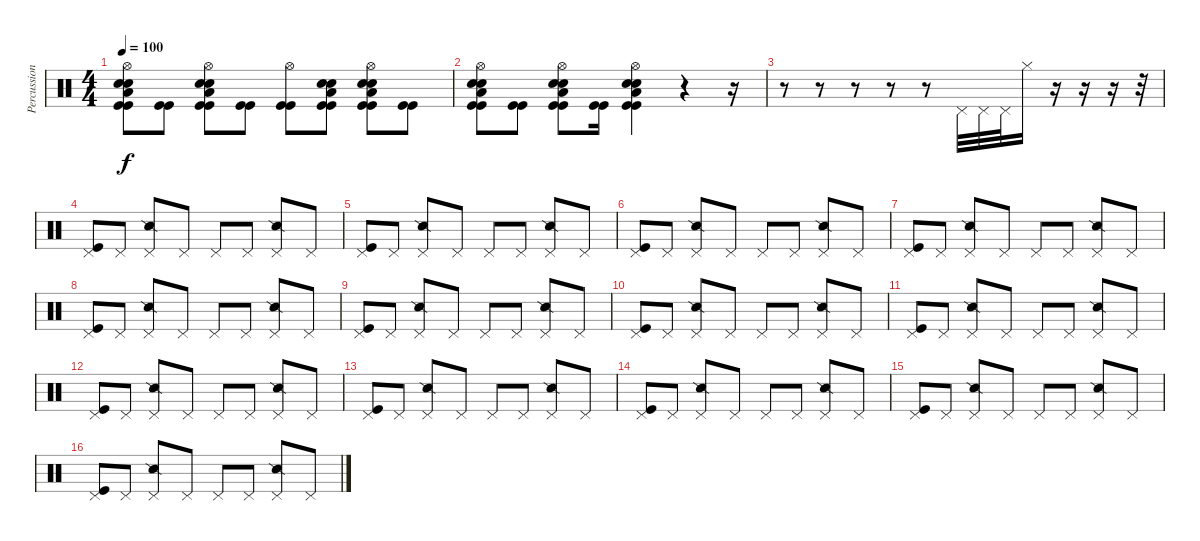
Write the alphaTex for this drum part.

\track ("Percussion" "Percussion") {instrument percussion}
\staff {score}
\articulation defaults
\ts (4 4)
\tempo 100
\clef neutral
\ks c
("Hi-Hat (open)" "Kick (hit)" "Kick (hit)" "Electric Snare (hit)" "Electric Snare (hit)" "Low Tom (hit)").8{dy f} ("Kick (hit)" "Kick (hit)").8 ("Hi-Hat (open)" "Kick (hit)" "Kick (hit)" "Electric Snare (hit)" "Electric Snare (hit)" "Low Tom (hit)").8 ("Kick (hit)" "Kick (hit)").8 ("Hi-Hat (open)" "Kick (hit)" "Kick (hit)").8 ("Kick (hit)" "Kick (hit)" "Electric Snare (hit)" "Electric Snare (hit)" "Low Tom (hit)").8 ("Hi-Hat (open)" "Kick (hit)" "Kick (hit)" "Electric Snare (hit)" "Electric Snare (hit)" "Low Tom (hit)").8 ("Kick (hit)" "Kick (hit)").8 |
("Hi-Hat (open)" "Kick (hit)" "Kick (hit)" "Electric Snare (hit)" "Electric Snare (hit)" "Low Tom (hit)").8 ("Kick (hit)" "Kick (hit)").8 ("Hi-Hat (open)" "Kick (hit)" "Kick (hit)" "Electric Snare (hit)" "Electric Snare (hit)" "Low Tom (hit)").8 ("Kick (hit)" "Kick (hit)").16 ("Hi-Hat (open)" "Kick (hit)" "Kick (hit)" "Electric Snare (hit)" "Electric Snare (hit)" "Low Tom (hit)").4 r.4 r.16 |
r.8 r.8 r.8 r.8 r.8 "Pedal Hi-Hat (hit)".32 "Pedal Hi-Hat (hit)".32 "Pedal Hi-Hat (hit)".32 "Hi-Hat (closed)".16 r.16 r.16 r.16 r.32 |
("Pedal Hi-Hat (hit)" "Kick (hit)").8 "Pedal Hi-Hat (hit)".8 ("Pedal Hi-Hat (hit)" "Snare (side stick) 2").8 "Pedal Hi-Hat (hit)".8 "Pedal Hi-Hat (hit)".8 "Pedal Hi-Hat (hit)".8 ("Pedal Hi-Hat (hit)" "Snare (side stick) 2").8 "Pedal Hi-Hat (hit)".8 |
("Pedal Hi-Hat (hit)" "Kick (hit)").8 "Pedal Hi-Hat (hit)".8 ("Pedal Hi-Hat (hit)" "Snare (side stick) 2").8 "Pedal Hi-Hat (hit)".8 "Pedal Hi-Hat (hit)".8 "Pedal Hi-Hat (hit)".8 ("Pedal Hi-Hat (hit)" "Snare (side stick) 2").8 "Pedal Hi-Hat (hit)".8 |
("Pedal Hi-Hat (hit)" "Kick (hit)").8 "Pedal Hi-Hat (hit)".8 ("Pedal Hi-Hat (hit)" "Snare (side stick) 2").8 "Pedal Hi-Hat (hit)".8 "Pedal Hi-Hat (hit)".8 "Pedal Hi-Hat (hit)".8 ("Pedal Hi-Hat (hit)" "Snare (side stick) 2").8 "Pedal Hi-Hat (hit)".8 |
("Pedal Hi-Hat (hit)" "Kick (hit)").8 "Pedal Hi-Hat (hit)".8 ("Pedal Hi-Hat (hit)" "Snare (side stick) 2").8 "Pedal Hi-Hat (hit)".8 "Pedal Hi-Hat (hit)".8 "Pedal Hi-Hat (hit)".8 ("Pedal Hi-Hat (hit)" "Snare (side stick) 2").8 "Pedal Hi-Hat (hit)".8 |
("Pedal Hi-Hat (hit)" "Kick (hit)").8 "Pedal Hi-Hat (hit)".8 ("Pedal Hi-Hat (hit)" "Snare (side stick) 2").8 "Pedal Hi-Hat (hit)".8 "Pedal Hi-Hat (hit)".8 "Pedal Hi-Hat (hit)".8 ("Pedal Hi-Hat (hit)" "Snare (side stick) 2").8 "Pedal Hi-Hat (hit)".8 |
("Pedal Hi-Hat (hit)" "Kick (hit)").8 "Pedal Hi-Hat (hit)".8 ("Pedal Hi-Hat (hit)" "Snare (side stick) 2").8 "Pedal Hi-Hat (hit)".8 "Pedal Hi-Hat (hit)".8 "Pedal Hi-Hat (hit)".8 ("Pedal Hi-Hat (hit)" "Snare (side stick) 2").8 "Pedal Hi-Hat (hit)".8 |
("Pedal Hi-Hat (hit)" "Kick (hit)").8 "Pedal Hi-Hat (hit)".8 ("Pedal Hi-Hat (hit)" "Snare (side stick) 2").8 "Pedal Hi-Hat (hit)".8 "Pedal Hi-Hat (hit)".8 "Pedal Hi-Hat (hit)".8 ("Pedal Hi-Hat (hit)" "Snare (side stick) 2").8 "Pedal Hi-Hat (hit)".8 |
("Pedal Hi-Hat (hit)" "Kick (hit)").8 "Pedal Hi-Hat (hit)".8 ("Pedal Hi-Hat (hit)" "Snare (side stick) 2").8 "Pedal Hi-Hat (hit)".8 "Pedal Hi-Hat (hit)".8 "Pedal Hi-Hat (hit)".8 ("Pedal Hi-Hat (hit)" "Snare (side stick) 2").8 "Pedal Hi-Hat (hit)".8 |
("Pedal Hi-Hat (hit)" "Kick (hit)").8 "Pedal Hi-Hat (hit)".8 ("Pedal Hi-Hat (hit)" "Snare (side stick) 2").8 "Pedal Hi-Hat (hit)".8 "Pedal Hi-Hat (hit)".8 "Pedal Hi-Hat (hit)".8 ("Pedal Hi-Hat (hit)" "Snare (side stick) 2").8 "Pedal Hi-Hat (hit)".8 |
("Pedal Hi-Hat (hit)" "Kick (hit)").8 "Pedal Hi-Hat (hit)".8 ("Pedal Hi-Hat (hit)" "Snare (side stick) 2").8 "Pedal Hi-Hat (hit)".8 "Pedal Hi-Hat (hit)".8 "Pedal Hi-Hat (hit)".8 ("Pedal Hi-Hat (hit)" "Snare (side stick) 2").8 "Pedal Hi-Hat (hit)".8 |
("Pedal Hi-Hat (hit)" "Kick (hit)").8 "Pedal Hi-Hat (hit)".8 ("Pedal Hi-Hat (hit)" "Snare (side stick) 2").8 "Pedal Hi-Hat (hit)".8 "Pedal Hi-Hat (hit)".8 "Pedal Hi-Hat (hit)".8 ("Pedal Hi-Hat (hit)" "Snare (side stick) 2").8 "Pedal Hi-Hat (hit)".8 |
("Pedal Hi-Hat (hit)" "Kick (hit)").8 "Pedal Hi-Hat (hit)".8 ("Pedal Hi-Hat (hit)" "Snare (side stick) 2").8 "Pedal Hi-Hat (hit)".8 "Pedal Hi-Hat (hit)".8 "Pedal Hi-Hat (hit)".8 ("Pedal Hi-Hat (hit)" "Snare (side stick) 2").8 "Pedal Hi-Hat (hit)".8 |
("Pedal Hi-Hat (hit)" "Kick (hit)").8 "Pedal Hi-Hat (hit)".8 ("Pedal Hi-Hat (hit)" "Snare (side stick) 2").8 "Pedal Hi-Hat (hit)".8 "Pedal Hi-Hat (hit)".8 "Pedal Hi-Hat (hit)".8 ("Pedal Hi-Hat (hit)" "Snare (side stick) 2").8 "Pedal Hi-Hat (hit)".8
